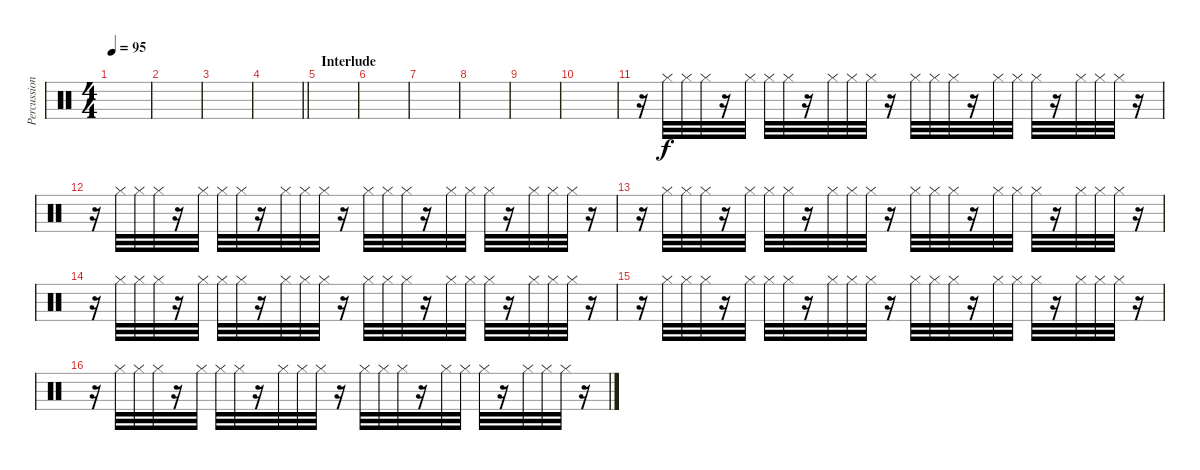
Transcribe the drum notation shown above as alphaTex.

\track ("Percussion" "Percussion") {instrument percussion}
\staff {score}
\articulation defaults
\ts (4 4)
\tempo 95
\clef neutral
\ks c
|
|
|
\barLineRight lightlight
|
\section ("" "Interlude")
|
|
|
|
|
|
r.16 "Hi-Hat (closed)".32 "Hi-Hat (closed)".32 "Hi-Hat (closed)".32 r.16 "Hi-Hat (closed)".32 "Hi-Hat (closed)".32 "Hi-Hat (closed)".32 r.16 "Hi-Hat (closed)".32 "Hi-Hat (closed)".32 "Hi-Hat (closed)".32 r.16 "Hi-Hat (closed)".32 "Hi-Hat (closed)".32 "Hi-Hat (closed)".32 r.16 "Hi-Hat (closed)".32 "Hi-Hat (closed)".32 "Hi-Hat (closed)".32 r.16 "Hi-Hat (closed)".32 "Hi-Hat (closed)".32 "Hi-Hat (closed)".32 r.16 |
r.16 "Hi-Hat (closed)".32 "Hi-Hat (closed)".32 "Hi-Hat (closed)".32 r.16 "Hi-Hat (closed)".32 "Hi-Hat (closed)".32 "Hi-Hat (closed)".32 r.16 "Hi-Hat (closed)".32 "Hi-Hat (closed)".32 "Hi-Hat (closed)".32 r.16 "Hi-Hat (closed)".32 "Hi-Hat (closed)".32 "Hi-Hat (closed)".32 r.16 "Hi-Hat (closed)".32 "Hi-Hat (closed)".32 "Hi-Hat (closed)".32 r.16 "Hi-Hat (closed)".32 "Hi-Hat (closed)".32 "Hi-Hat (closed)".32 r.16 |
r.16 "Hi-Hat (closed)".32 "Hi-Hat (closed)".32 "Hi-Hat (closed)".32 r.16 "Hi-Hat (closed)".32 "Hi-Hat (closed)".32 "Hi-Hat (closed)".32 r.16 "Hi-Hat (closed)".32 "Hi-Hat (closed)".32 "Hi-Hat (closed)".32 r.16 "Hi-Hat (closed)".32 "Hi-Hat (closed)".32 "Hi-Hat (closed)".32 r.16 "Hi-Hat (closed)".32 "Hi-Hat (closed)".32 "Hi-Hat (closed)".32 r.16 "Hi-Hat (closed)".32 "Hi-Hat (closed)".32 "Hi-Hat (closed)".32 r.16 |
r.16 "Hi-Hat (closed)".32 "Hi-Hat (closed)".32 "Hi-Hat (closed)".32 r.16 "Hi-Hat (closed)".32 "Hi-Hat (closed)".32 "Hi-Hat (closed)".32 r.16 "Hi-Hat (closed)".32 "Hi-Hat (closed)".32 "Hi-Hat (closed)".32 r.16 "Hi-Hat (closed)".32 "Hi-Hat (closed)".32 "Hi-Hat (closed)".32 r.16 "Hi-Hat (closed)".32 "Hi-Hat (closed)".32 "Hi-Hat (closed)".32 r.16 "Hi-Hat (closed)".32 "Hi-Hat (closed)".32 "Hi-Hat (closed)".32 r.16 |
r.16 "Hi-Hat (closed)".32 "Hi-Hat (closed)".32 "Hi-Hat (closed)".32 r.16 "Hi-Hat (closed)".32 "Hi-Hat (closed)".32 "Hi-Hat (closed)".32 r.16 "Hi-Hat (closed)".32 "Hi-Hat (closed)".32 "Hi-Hat (closed)".32 r.16 "Hi-Hat (closed)".32 "Hi-Hat (closed)".32 "Hi-Hat (closed)".32 r.16 "Hi-Hat (closed)".32 "Hi-Hat (closed)".32 "Hi-Hat (closed)".32 r.16 "Hi-Hat (closed)".32 "Hi-Hat (closed)".32 "Hi-Hat (closed)".32 r.16 |
r.16 "Hi-Hat (closed)".32 "Hi-Hat (closed)".32 "Hi-Hat (closed)".32 r.16 "Hi-Hat (closed)".32 "Hi-Hat (closed)".32 "Hi-Hat (closed)".32 r.16 "Hi-Hat (closed)".32 "Hi-Hat (closed)".32 "Hi-Hat (closed)".32 r.16 "Hi-Hat (closed)".32 "Hi-Hat (closed)".32 "Hi-Hat (closed)".32 r.16 "Hi-Hat (closed)".32 "Hi-Hat (closed)".32 "Hi-Hat (closed)".32 r.16 "Hi-Hat (closed)".32 "Hi-Hat (closed)".32 "Hi-Hat (closed)".32 r.16
